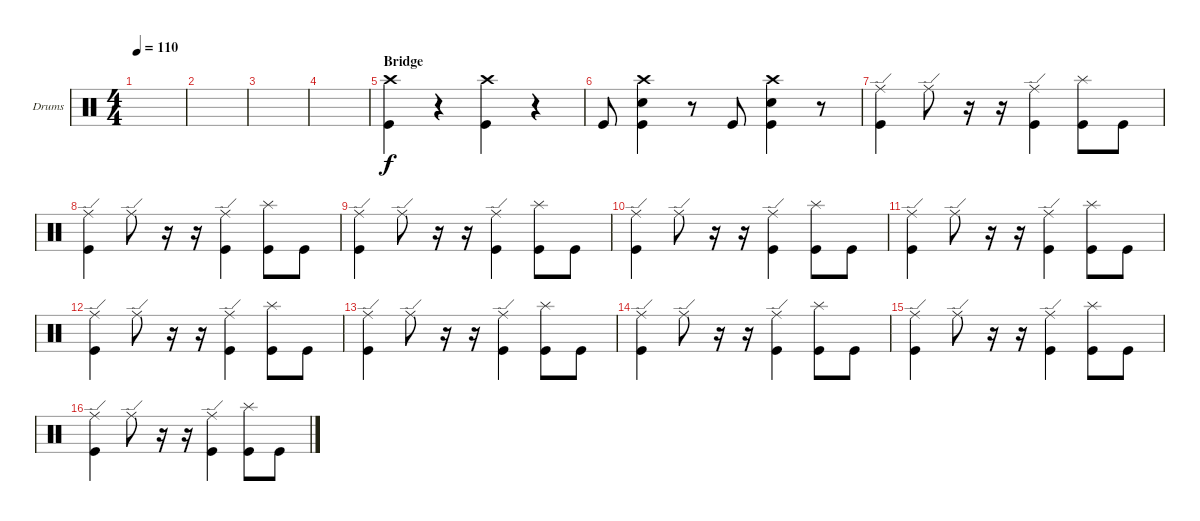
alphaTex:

\bracketExtendMode groupsimilarinstruments
\firstSystemTrackNameOrientation horizontal
\otherSystemsTrackNameOrientation horizontal
\track ("Drumkit" "Drums") {instrument percussion}
\staff {score}
\articulation defaults
\ts (4 4)
\tempo 110
\clef neutral
\ks c
|
|
|
|
\section ("" "Bridge")
("Crash high (hit)" "Kick (hit)").4 r.4 ("Crash high (hit)" "Kick (hit)").4 r.4 |
"Kick (hit)".8 ("Crash high (hit)" "Kick (hit)" "Snare (hit) 2").4 r.8 "Kick (hit)".8 ("Crash high (hit)" "Kick (hit)" "Snare (hit) 2").4 r.8 |
("Ride (edge)" "Kick (hit)").4 "Ride (edge)".8 r.16 r.16 ("Ride (edge)" "Kick (hit)").4 ("Splash (hit)" "Kick (hit)").8 "Kick (hit)".8 |
("Ride (edge)" "Kick (hit)").4 "Ride (edge)".8 r.16 r.16 ("Ride (edge)" "Kick (hit)").4 ("Splash (hit)" "Kick (hit)").8 "Kick (hit)".8 |
("Ride (edge)" "Kick (hit)").4 "Ride (edge)".8 r.16 r.16 ("Ride (edge)" "Kick (hit)").4 ("Splash (hit)" "Kick (hit)").8 "Kick (hit)".8 |
("Ride (edge)" "Kick (hit)").4 "Ride (edge)".8 r.16 r.16 ("Ride (edge)" "Kick (hit)").4 ("Splash (hit)" "Kick (hit)").8 "Kick (hit)".8 |
("Ride (edge)" "Kick (hit)").4 "Ride (edge)".8 r.16 r.16 ("Ride (edge)" "Kick (hit)").4 ("Splash (hit)" "Kick (hit)").8 "Kick (hit)".8 |
("Ride (edge)" "Kick (hit)").4 "Ride (edge)".8 r.16 r.16 ("Ride (edge)" "Kick (hit)").4 ("Splash (hit)" "Kick (hit)").8 "Kick (hit)".8 |
("Ride (edge)" "Kick (hit)").4 "Ride (edge)".8 r.16 r.16 ("Ride (edge)" "Kick (hit)").4 ("Splash (hit)" "Kick (hit)").8 "Kick (hit)".8 |
("Ride (edge)" "Kick (hit)").4 "Ride (edge)".8 r.16 r.16 ("Ride (edge)" "Kick (hit)").4 ("Splash (hit)" "Kick (hit)").8 "Kick (hit)".8 |
("Ride (edge)" "Kick (hit)").4 "Ride (edge)".8 r.16 r.16 ("Ride (edge)" "Kick (hit)").4 ("Splash (hit)" "Kick (hit)").8 "Kick (hit)".8 |
("Ride (edge)" "Kick (hit)").4 "Ride (edge)".8 r.16 r.16 ("Ride (edge)" "Kick (hit)").4 ("Splash (hit)" "Kick (hit)").8 "Kick (hit)".8
